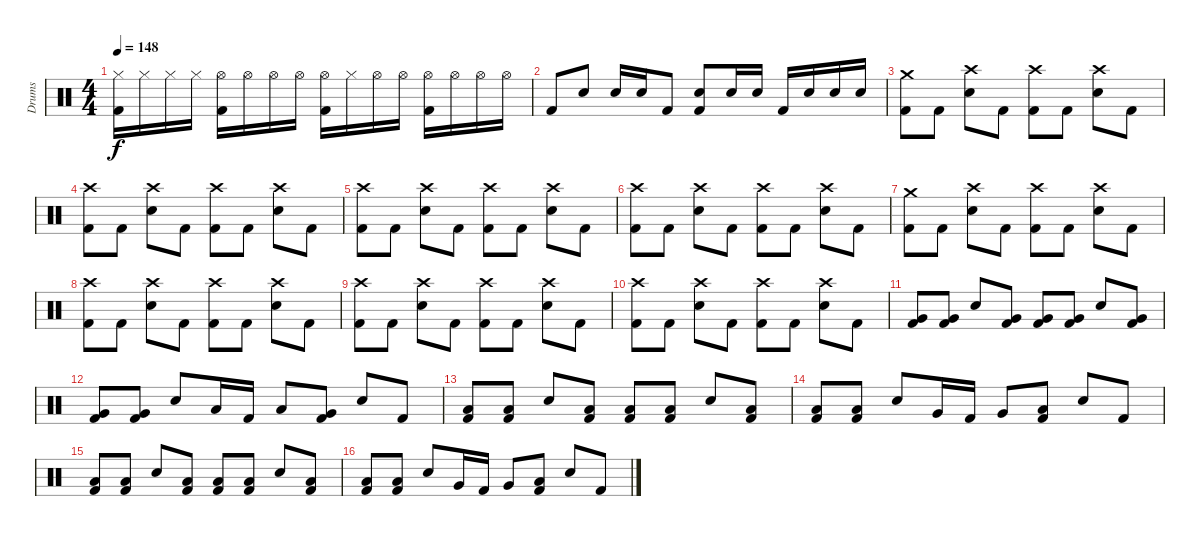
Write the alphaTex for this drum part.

\track ("Drums" "Drums") {instrument percussion}
\staff {score}
\articulation defaults
\ts (4 4)
\tempo 148
\clef neutral
\ks c
("Hi-Hat (closed)" "Kick (hit) 2").16{dy f} "Hi-Hat (closed)".16 "Hi-Hat (closed)".16 "Hi-Hat (closed)".16 ("Hi-Hat (open)" "Kick (hit) 2").16 "Hi-Hat (open)".16 "Hi-Hat (open)".16 "Hi-Hat (open)".16 ("Hi-Hat (open)" "Kick (hit) 2").16 "Hi-Hat (closed)".16 "Hi-Hat (open)".16 "Hi-Hat (open)".16 ("Hi-Hat (open)" "Kick (hit) 2").16 "Hi-Hat (open)".16 "Hi-Hat (open)".16 "Hi-Hat (open)".16 |
"Kick (hit) 2".8 "Snare (hit) 2".8 "Snare (hit) 2".16 "Snare (hit) 2".16 "Kick (hit) 2".8 ("Snare (hit) 2" "Kick (hit) 2").8 "Snare (hit) 2".16 "Snare (hit) 2".16 "Kick (hit) 2".16 "Snare (hit) 2".16 "Snare (hit) 2".16 "Snare (hit) 2".16 |
("Crash medium (hit)" "Kick (hit) 2").8 "Kick (hit) 2".8 ("Crash high (hit)" "Snare (hit) 2").8 "Kick (hit) 2".8 ("Crash high (hit)" "Kick (hit) 2").8 "Kick (hit) 2".8 ("Crash high (hit)" "Snare (hit) 2").8 "Kick (hit) 2".8 |
("Crash high (hit)" "Kick (hit) 2").8 "Kick (hit) 2".8 ("Crash high (hit)" "Snare (hit) 2").8 "Kick (hit) 2".8 ("Crash high (hit)" "Kick (hit) 2").8 "Kick (hit) 2".8 ("Crash high (hit)" "Snare (hit) 2").8 "Kick (hit) 2".8 |
("Crash high (hit)" "Kick (hit) 2").8 "Kick (hit) 2".8 ("Crash high (hit)" "Snare (hit) 2").8 "Kick (hit) 2".8 ("Crash high (hit)" "Kick (hit) 2").8 "Kick (hit) 2".8 ("Crash high (hit)" "Snare (hit) 2").8 "Kick (hit) 2".8 |
("Crash high (hit)" "Kick (hit) 2").8 "Kick (hit) 2".8 ("Crash high (hit)" "Snare (hit) 2").8 "Kick (hit) 2".8 ("Crash high (hit)" "Kick (hit) 2").8 "Kick (hit) 2".8 ("Crash high (hit)" "Snare (hit) 2").8 "Kick (hit) 2".8 |
("Crash medium (hit)" "Kick (hit) 2").8 "Kick (hit) 2".8 ("Crash high (hit)" "Snare (hit) 2").8 "Kick (hit) 2".8 ("Crash high (hit)" "Kick (hit) 2").8 "Kick (hit) 2".8 ("Crash high (hit)" "Snare (hit) 2").8 "Kick (hit) 2".8 |
("Crash high (hit)" "Kick (hit) 2").8 "Kick (hit) 2".8 ("Crash high (hit)" "Snare (hit) 2").8 "Kick (hit) 2".8 ("Crash high (hit)" "Kick (hit) 2").8 "Kick (hit) 2".8 ("Crash high (hit)" "Snare (hit) 2").8 "Kick (hit) 2".8 |
("Crash high (hit)" "Kick (hit) 2").8 "Kick (hit) 2".8 ("Crash high (hit)" "Snare (hit) 2").8 "Kick (hit) 2".8 ("Crash high (hit)" "Kick (hit) 2").8 "Kick (hit) 2".8 ("Crash high (hit)" "Snare (hit) 2").8 "Kick (hit) 2".8 |
("Crash high (hit)" "Kick (hit) 2").8 "Kick (hit) 2".8 ("Crash high (hit)" "Snare (hit) 2").8 "Kick (hit) 2".8 ("Crash high (hit)" "Kick (hit) 2").8 "Kick (hit) 2".8 ("Crash high (hit)" "Snare (hit) 2").8 "Kick (hit) 2".8 |
("Very Low Tom (hit)" "Kick (hit) 2").8 ("Very Low Tom (hit)" "Kick (hit) 2").8 "Snare (hit) 2".8 ("Very Low Tom (hit)" "Kick (hit) 2").8 ("Very Low Tom (hit)" "Kick (hit) 2").8 ("Very Low Tom (hit)" "Kick (hit) 2").8 "Snare (hit) 2".8 ("Very Low Tom (hit)" "Kick (hit) 2").8 |
("Very Low Tom (hit)" "Kick (hit) 2").8 ("Very Low Tom (hit)" "Kick (hit) 2").8 "Snare (hit) 2".8 "Low Tom (hit)".16 "Kick (hit) 2".16 "Low Tom (hit)".8 ("Very Low Tom (hit)" "Kick (hit) 2").8 "Snare (hit) 2".8 "Kick (hit) 2".8 |
("Low Tom (hit)" "Kick (hit) 2").8 ("Low Tom (hit)" "Kick (hit) 2").8 "Snare (hit) 2".8 ("Low Tom (hit)" "Kick (hit) 2").8 ("Low Tom (hit)" "Kick (hit) 2").8 ("Low Tom (hit)" "Kick (hit) 2").8 "Snare (hit) 2".8 ("Low Tom (hit)" "Kick (hit) 2").8 |
("Low Tom (hit)" "Kick (hit) 2").8 ("Low Tom (hit)" "Kick (hit) 2").8 "Snare (hit) 2".8 "Very Low Tom (hit)".16 "Kick (hit) 2".16 "Very Low Tom (hit)".8 ("Low Tom (hit)" "Kick (hit) 2").8 "Snare (hit) 2".8 "Kick (hit) 2".8 |
("Low Tom (hit)" "Kick (hit) 2").8 ("Low Tom (hit)" "Kick (hit) 2").8 "Snare (hit) 2".8 ("Low Tom (hit)" "Kick (hit) 2").8 ("Low Tom (hit)" "Kick (hit) 2").8 ("Low Tom (hit)" "Kick (hit) 2").8 "Snare (hit) 2".8 ("Low Tom (hit)" "Kick (hit) 2").8 |
("Low Tom (hit)" "Kick (hit) 2").8 ("Low Tom (hit)" "Kick (hit) 2").8 "Snare (hit) 2".8 "Very Low Tom (hit)".16 "Kick (hit) 2".16 "Very Low Tom (hit)".8 ("Low Tom (hit)" "Kick (hit) 2").8 "Snare (hit) 2".8 "Kick (hit) 2".8
